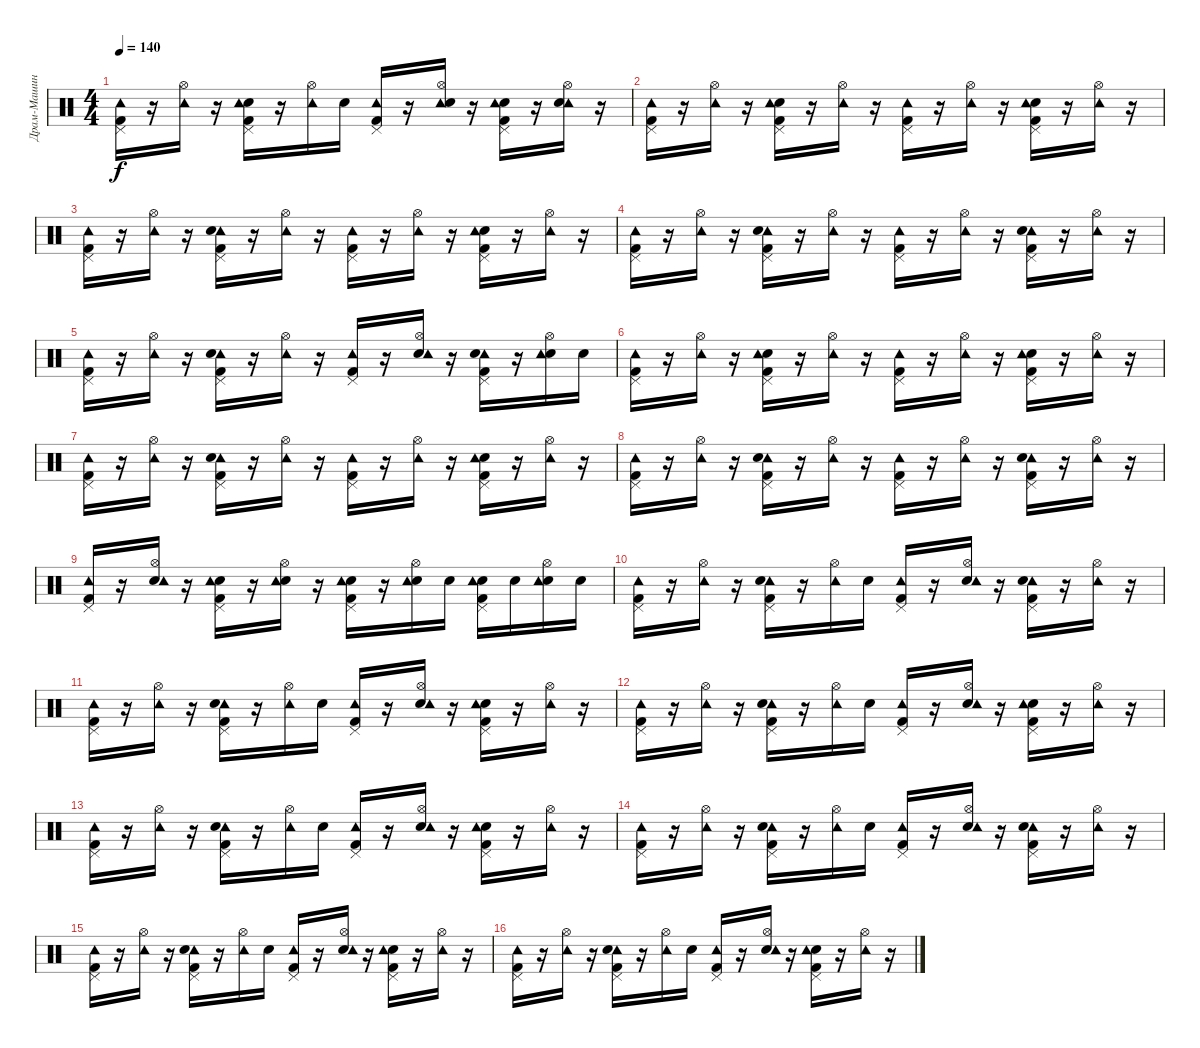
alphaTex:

\track ("Драм-Машина" "Драм-Машин") {instrument percussion}
\staff {score}
\articulation defaults
\ts (4 4)
\tempo 140
\clef neutral
\ks c
("Tambourine (hit)" "Kick (hit) 2" "Pedal Hi-Hat (hit)").16{dy f} r.16 ("Tambourine (hit)" "Hi-Hat (open)").16 r.16 ("Pedal Hi-Hat (hit)" "Kick (hit) 2" "Snare (hit) 2" "Tambourine (hit)").16 r.16 ("Tambourine (hit)" "Hi-Hat (open)").16 "Snare (hit) 2".16 ("Pedal Hi-Hat (hit)" "Kick (hit) 2" "Tambourine (hit)").16 r.16 ("Tambourine (hit)" "Hi-Hat (open)" "Snare (hit) 2").16 r.16 ("Snare (hit) 2" "Kick (hit) 2" "Pedal Hi-Hat (hit)" "Tambourine (hit)").16 r.16 ("Hi-Hat (open)" "Tambourine (hit)" "Snare (hit) 2").16 r.16 |
("Tambourine (hit)" "Pedal Hi-Hat (hit)" "Kick (hit) 2").16 r.16 ("Tambourine (hit)" "Hi-Hat (open)").16 r.16 ("Kick (hit) 2" "Pedal Hi-Hat (hit)" "Snare (hit) 2" "Tambourine (hit)").16 r.16 ("Hi-Hat (open)" "Tambourine (hit)").16 r.16 ("Kick (hit) 2" "Pedal Hi-Hat (hit)" "Tambourine (hit)").16 r.16 ("Tambourine (hit)" "Hi-Hat (open)").16 r.16 ("Kick (hit) 2" "Snare (hit) 2" "Tambourine (hit)" "Pedal Hi-Hat (hit)").16 r.16 ("Hi-Hat (open)" "Tambourine (hit)").16 r.16 |
("Tambourine (hit)" "Kick (hit) 2" "Pedal Hi-Hat (hit)").16 r.16 ("Hi-Hat (open)" "Tambourine (hit)").16 r.16 ("Kick (hit) 2" "Tambourine (hit)" "Pedal Hi-Hat (hit)" "Snare (hit) 2").16 r.16 ("Tambourine (hit)" "Hi-Hat (open)").16 r.16 ("Pedal Hi-Hat (hit)" "Tambourine (hit)" "Kick (hit) 2").16 r.16 ("Hi-Hat (open)" "Tambourine (hit)").16 r.16 ("Kick (hit) 2" "Pedal Hi-Hat (hit)" "Snare (hit) 2" "Tambourine (hit)").16 r.16 ("Hi-Hat (open)" "Tambourine (hit)").16 r.16 |
("Tambourine (hit)" "Pedal Hi-Hat (hit)" "Kick (hit) 2").16 r.16 ("Hi-Hat (open)" "Tambourine (hit)").16 r.16 ("Kick (hit) 2" "Tambourine (hit)" "Pedal Hi-Hat (hit)" "Snare (hit) 2").16 r.16 ("Hi-Hat (open)" "Tambourine (hit)").16 r.16 ("Tambourine (hit)" "Kick (hit) 2" "Pedal Hi-Hat (hit)").16 r.16 ("Tambourine (hit)" "Hi-Hat (open)").16 r.16 ("Kick (hit) 2" "Pedal Hi-Hat (hit)" "Tambourine (hit)" "Snare (hit) 2").16 r.16 ("Hi-Hat (open)" "Tambourine (hit)").16 r.16 |
("Pedal Hi-Hat (hit)" "Kick (hit) 2" "Tambourine (hit)").16 r.16 ("Tambourine (hit)" "Hi-Hat (open)").16 r.16 ("Kick (hit) 2" "Pedal Hi-Hat (hit)" "Tambourine (hit)" "Snare (hit) 2").16 r.16 ("Hi-Hat (open)" "Tambourine (hit)").16 r.16 ("Kick (hit) 2" "Pedal Hi-Hat (hit)" "Tambourine (hit)").16 r.16 ("Snare (hit) 2" "Hi-Hat (open)" "Tambourine (hit)").16 r.16 ("Kick (hit) 2" "Pedal Hi-Hat (hit)" "Tambourine (hit)" "Snare (hit) 2").16 r.16 ("Hi-Hat (open)" "Snare (hit) 2" "Tambourine (hit)").16 "Snare (hit) 2".16 |
("Kick (hit) 2" "Tambourine (hit)" "Pedal Hi-Hat (hit)").16 r.16 ("Tambourine (hit)" "Hi-Hat (open)").16 r.16 ("Kick (hit) 2" "Pedal Hi-Hat (hit)" "Snare (hit) 2" "Tambourine (hit)").16 r.16 ("Hi-Hat (open)" "Tambourine (hit)").16 r.16 ("Kick (hit) 2" "Pedal Hi-Hat (hit)" "Tambourine (hit)").16 r.16 ("Tambourine (hit)" "Hi-Hat (open)").16 r.16 ("Kick (hit) 2" "Snare (hit) 2" "Tambourine (hit)" "Pedal Hi-Hat (hit)").16 r.16 ("Hi-Hat (open)" "Tambourine (hit)").16 r.16 |
("Tambourine (hit)" "Kick (hit) 2" "Pedal Hi-Hat (hit)").16 r.16 ("Hi-Hat (open)" "Tambourine (hit)").16 r.16 ("Kick (hit) 2" "Tambourine (hit)" "Pedal Hi-Hat (hit)" "Snare (hit) 2").16 r.16 ("Tambourine (hit)" "Hi-Hat (open)").16 r.16 ("Pedal Hi-Hat (hit)" "Tambourine (hit)" "Kick (hit) 2").16 r.16 ("Hi-Hat (open)" "Tambourine (hit)").16 r.16 ("Kick (hit) 2" "Pedal Hi-Hat (hit)" "Snare (hit) 2" "Tambourine (hit)").16 r.16 ("Hi-Hat (open)" "Tambourine (hit)").16 r.16 |
("Tambourine (hit)" "Pedal Hi-Hat (hit)" "Kick (hit) 2").16 r.16 ("Hi-Hat (open)" "Tambourine (hit)").16 r.16 ("Kick (hit) 2" "Tambourine (hit)" "Pedal Hi-Hat (hit)" "Snare (hit) 2").16 r.16 ("Hi-Hat (open)" "Tambourine (hit)").16 r.16 ("Tambourine (hit)" "Kick (hit) 2" "Pedal Hi-Hat (hit)").16 r.16 ("Tambourine (hit)" "Hi-Hat (open)").16 r.16 ("Kick (hit) 2" "Pedal Hi-Hat (hit)" "Tambourine (hit)" "Snare (hit) 2").16 r.16 ("Hi-Hat (open)" "Tambourine (hit)").16 r.16 |
("Pedal Hi-Hat (hit)" "Kick (hit) 2" "Tambourine (hit)").16 r.16 ("Snare (hit) 2" "Tambourine (hit)" "Hi-Hat (open)").16 r.16 ("Snare (hit) 2" "Kick (hit) 2" "Pedal Hi-Hat (hit)" "Tambourine (hit)").16 r.16 ("Snare (hit) 2" "Hi-Hat (open)" "Tambourine (hit)").16 r.16 ("Snare (hit) 2" "Kick (hit) 2" "Pedal Hi-Hat (hit)" "Tambourine (hit)").16 r.16 ("Snare (hit) 2" "Hi-Hat (open)" "Tambourine (hit)").16 "Snare (hit) 2".16 ("Snare (hit) 2" "Kick (hit) 2" "Pedal Hi-Hat (hit)" "Tambourine (hit)").16 "Snare (hit) 2".16 ("Snare (hit) 2" "Hi-Hat (open)" "Tambourine (hit)").16 "Snare (hit) 2".16 |
("Tambourine (hit)" "Kick (hit) 2" "Pedal Hi-Hat (hit)").16 r.16 ("Tambourine (hit)" "Hi-Hat (open)").16 r.16 ("Kick (hit) 2" "Tambourine (hit)" "Pedal Hi-Hat (hit)" "Snare (hit) 2").16 r.16 ("Tambourine (hit)" "Hi-Hat (open)").16 "Snare (hit) 2".16 ("Tambourine (hit)" "Kick (hit) 2" "Pedal Hi-Hat (hit)").16 r.16 ("Snare (hit) 2" "Tambourine (hit)" "Hi-Hat (open)").16 r.16 ("Pedal Hi-Hat (hit)" "Kick (hit) 2" "Tambourine (hit)" "Snare (hit) 2").16 r.16 ("Tambourine (hit)" "Hi-Hat (open)").16 r.16 |
("Tambourine (hit)" "Pedal Hi-Hat (hit)" "Kick (hit) 2").16 r.16 ("Tambourine (hit)" "Hi-Hat (open)").16 r.16 ("Kick (hit) 2" "Tambourine (hit)" "Pedal Hi-Hat (hit)" "Snare (hit) 2").16 r.16 ("Hi-Hat (open)" "Tambourine (hit)").16 "Snare (hit) 2".16 ("Pedal Hi-Hat (hit)" "Tambourine (hit)" "Kick (hit) 2").16 r.16 ("Snare (hit) 2" "Hi-Hat (open)" "Tambourine (hit)").16 r.16 ("Snare (hit) 2" "Tambourine (hit)" "Kick (hit) 2" "Pedal Hi-Hat (hit)").16 r.16 ("Tambourine (hit)" "Hi-Hat (open)").16 r.16 |
("Tambourine (hit)" "Kick (hit) 2" "Pedal Hi-Hat (hit)").16 r.16 ("Tambourine (hit)" "Hi-Hat (open)").16 r.16 ("Tambourine (hit)" "Kick (hit) 2" "Pedal Hi-Hat (hit)" "Snare (hit) 2").16 r.16 ("Tambourine (hit)" "Hi-Hat (open)").16 "Snare (hit) 2".16 ("Pedal Hi-Hat (hit)" "Kick (hit) 2" "Tambourine (hit)").16 r.16 ("Snare (hit) 2" "Tambourine (hit)" "Hi-Hat (open)").16 r.16 ("Snare (hit) 2" "Kick (hit) 2" "Pedal Hi-Hat (hit)" "Tambourine (hit)").16 r.16 ("Tambourine (hit)" "Hi-Hat (open)").16 r.16 |
("Tambourine (hit)" "Kick (hit) 2" "Pedal Hi-Hat (hit)").16 r.16 ("Tambourine (hit)" "Hi-Hat (open)").16 r.16 ("Pedal Hi-Hat (hit)" "Kick (hit) 2" "Tambourine (hit)" "Snare (hit) 2").16 r.16 ("Tambourine (hit)" "Hi-Hat (open)").16 "Snare (hit) 2".16 ("Pedal Hi-Hat (hit)" "Kick (hit) 2" "Tambourine (hit)").16 r.16 ("Snare (hit) 2" "Tambourine (hit)" "Hi-Hat (open)").16 r.16 ("Snare (hit) 2" "Kick (hit) 2" "Pedal Hi-Hat (hit)" "Tambourine (hit)").16 r.16 ("Hi-Hat (open)" "Tambourine (hit)").16 r.16 |
("Tambourine (hit)" "Kick (hit) 2" "Pedal Hi-Hat (hit)").16 r.16 ("Tambourine (hit)" "Hi-Hat (open)").16 r.16 ("Kick (hit) 2" "Tambourine (hit)" "Pedal Hi-Hat (hit)" "Snare (hit) 2").16 r.16 ("Tambourine (hit)" "Hi-Hat (open)").16 "Snare (hit) 2".16 ("Tambourine (hit)" "Kick (hit) 2" "Pedal Hi-Hat (hit)").16 r.16 ("Snare (hit) 2" "Tambourine (hit)" "Hi-Hat (open)").16 r.16 ("Pedal Hi-Hat (hit)" "Kick (hit) 2" "Tambourine (hit)" "Snare (hit) 2").16 r.16 ("Tambourine (hit)" "Hi-Hat (open)").16 r.16 |
("Tambourine (hit)" "Pedal Hi-Hat (hit)" "Kick (hit) 2").16 r.16 ("Tambourine (hit)" "Hi-Hat (open)").16 r.16 ("Kick (hit) 2" "Tambourine (hit)" "Pedal Hi-Hat (hit)" "Snare (hit) 2").16 r.16 ("Hi-Hat (open)" "Tambourine (hit)").16 "Snare (hit) 2".16 ("Pedal Hi-Hat (hit)" "Tambourine (hit)" "Kick (hit) 2").16 r.16 ("Snare (hit) 2" "Hi-Hat (open)" "Tambourine (hit)").16 r.16 ("Snare (hit) 2" "Tambourine (hit)" "Kick (hit) 2" "Pedal Hi-Hat (hit)").16 r.16 ("Tambourine (hit)" "Hi-Hat (open)").16 r.16 |
("Tambourine (hit)" "Kick (hit) 2" "Pedal Hi-Hat (hit)").16 r.16 ("Tambourine (hit)" "Hi-Hat (open)").16 r.16 ("Tambourine (hit)" "Kick (hit) 2" "Pedal Hi-Hat (hit)" "Snare (hit) 2").16 r.16 ("Tambourine (hit)" "Hi-Hat (open)").16 "Snare (hit) 2".16 ("Pedal Hi-Hat (hit)" "Kick (hit) 2" "Tambourine (hit)").16 r.16 ("Snare (hit) 2" "Tambourine (hit)" "Hi-Hat (open)").16 r.16 ("Snare (hit) 2" "Kick (hit) 2" "Pedal Hi-Hat (hit)" "Tambourine (hit)").16 r.16 ("Tambourine (hit)" "Hi-Hat (open)").16 r.16
